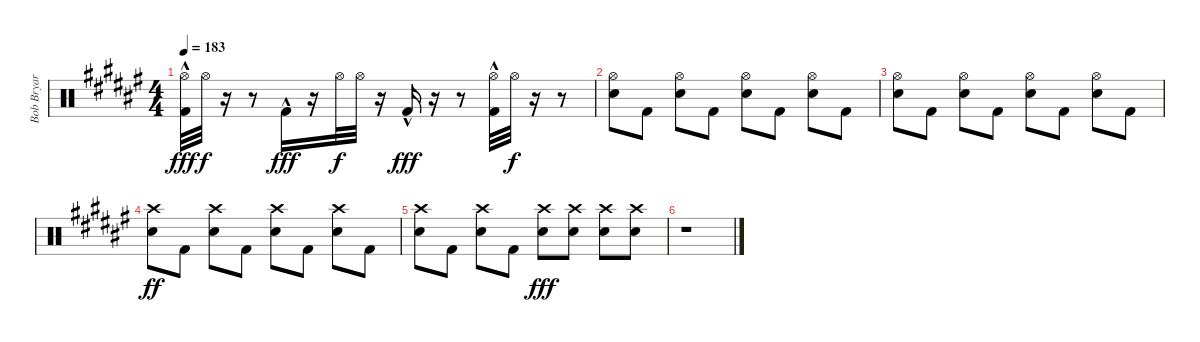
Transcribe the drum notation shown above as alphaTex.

\track ("Bob Bryar" "Bob Bryar") {instrument percussion}
\staff {score}
\articulation defaults
\ts (4 4)
\tempo 183
\clef neutral
\ks d#minor
("Hi-Hat (open)" "Kick (hit) 2"{hac}).32{dy fff} "Hi-Hat (open)".32{dy f} r.16 r.8 "Kick (hit) 2"{hac}.16{dy fff} r.16 "Hi-Hat (open)".32{dy f} "Hi-Hat (open)".32 r.16 "Kick (hit) 2"{hac}.16{dy fff} r.16 r.8 ("Hi-Hat (open)" "Kick (hit) 2"{hac}).32 "Hi-Hat (open)".32{dy f} r.16 r.8 |
("Hi-Hat (open)" "Electric Snare (hit)").8 "Kick (hit) 2".8 ("Hi-Hat (open)" "Electric Snare (hit)").8 "Kick (hit) 2".8 ("Hi-Hat (open)" "Electric Snare (hit)").8 "Kick (hit) 2".8 ("Hi-Hat (open)" "Electric Snare (hit)").8 "Kick (hit) 2".8 |
("Hi-Hat (open)" "Electric Snare (hit)").8 "Kick (hit) 2".8 ("Hi-Hat (open)" "Electric Snare (hit)").8 "Kick (hit) 2".8 ("Hi-Hat (open)" "Electric Snare (hit)").8 "Kick (hit) 2".8 ("Hi-Hat (open)" "Electric Snare (hit)").8 "Kick (hit) 2".8 |
("Crash high (hit)" "Electric Snare (hit)").8{dy ff} "Kick (hit) 2".8 ("Crash high (hit)" "Electric Snare (hit)").8 "Kick (hit) 2".8 ("Crash high (hit)" "Electric Snare (hit)").8 "Kick (hit) 2".8 ("Crash high (hit)" "Electric Snare (hit)").8 "Kick (hit) 2".8 |
("Crash high (hit)" "Electric Snare (hit)").8 "Kick (hit) 2".8 ("Crash high (hit)" "Electric Snare (hit)").8 "Kick (hit) 2".8 ("Crash high (hit)" "Electric Snare (hit)").8{dy fff} ("Crash high (hit)" "Electric Snare (hit)").8 ("Crash high (hit)" "Electric Snare (hit)").8 ("Crash high (hit)" "Electric Snare (hit)").8 |
r.1
